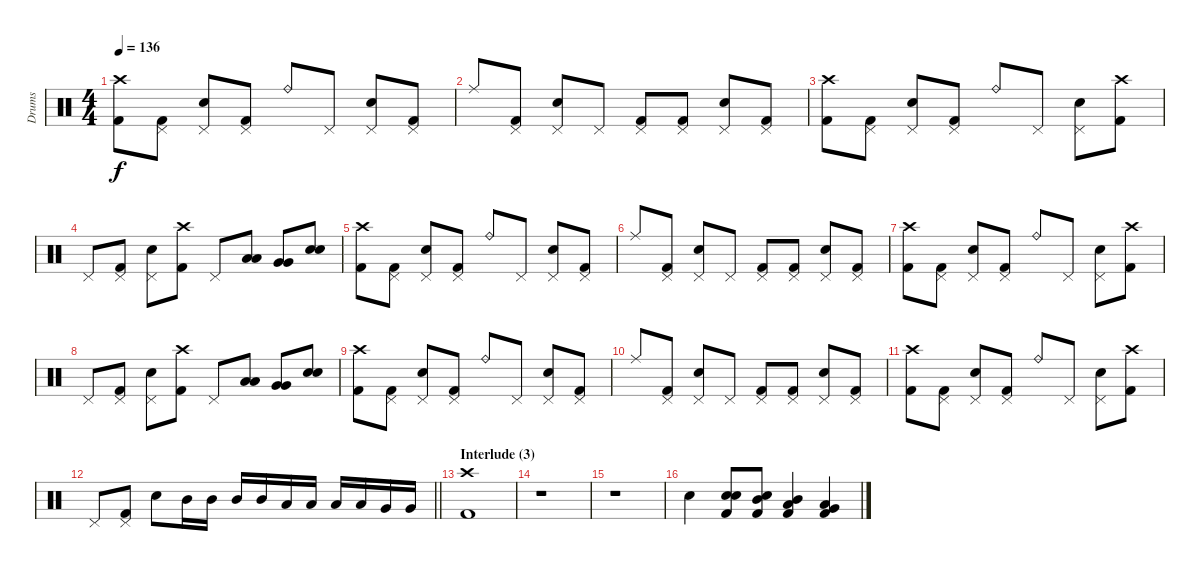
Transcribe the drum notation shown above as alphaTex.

\track ("Drums" "Drums") {instrument percussion}
\staff {score}
\articulation defaults
\ts (4 4)
\tempo 136
\clef neutral
\ks c
("Crash high (hit)" "Kick (hit) 2").8{dy f} ("Pedal Hi-Hat (hit)" "Kick (hit) 2").8 ("Pedal Hi-Hat (hit)" "Electric Snare (hit)").8 ("Pedal Hi-Hat (hit)" "Kick (hit) 2").8 "Ride (bell)".8 "Pedal Hi-Hat (hit)".8 ("Pedal Hi-Hat (hit)" "Electric Snare (hit)").8 ("Pedal Hi-Hat (hit)" "Kick (hit) 2").8 |
"Ride (middle)".8 ("Pedal Hi-Hat (hit)" "Kick (hit) 2").8 ("Pedal Hi-Hat (hit)" "Electric Snare (hit)").8 "Pedal Hi-Hat (hit)".8 ("Pedal Hi-Hat (hit)" "Kick (hit) 2").8 ("Pedal Hi-Hat (hit)" "Kick (hit) 2").8 ("Pedal Hi-Hat (hit)" "Electric Snare (hit)").8 ("Pedal Hi-Hat (hit)" "Kick (hit) 2").8 |
("Crash high (hit)" "Kick (hit) 2").8 ("Pedal Hi-Hat (hit)" "Kick (hit) 2").8 ("Pedal Hi-Hat (hit)" "Electric Snare (hit)").8 ("Pedal Hi-Hat (hit)" "Kick (hit) 2").8 "Ride (bell)".8 "Pedal Hi-Hat (hit)".8 ("Pedal Hi-Hat (hit)" "Electric Snare (hit)").8 ("Crash high (hit)" "Kick (hit) 2").8 |
"Pedal Hi-Hat (hit)".8 ("Pedal Hi-Hat (hit)" "Kick (hit) 2").8 ("Pedal Hi-Hat (hit)" "Electric Snare (hit)").8 ("Crash high (hit)" "Kick (hit) 2").8 "Pedal Hi-Hat (hit)".8 ("Low Tom (hit)" "Low Tom (hit)").8 ("Very Low Tom (hit)" "Very Low Tom (hit)").8 ("Electric Snare (hit)" "Electric Snare (hit)").8 |
("Crash high (hit)" "Kick (hit) 2").8 ("Pedal Hi-Hat (hit)" "Kick (hit) 2").8 ("Pedal Hi-Hat (hit)" "Electric Snare (hit)").8 ("Pedal Hi-Hat (hit)" "Kick (hit) 2").8 "Ride (bell)".8 "Pedal Hi-Hat (hit)".8 ("Pedal Hi-Hat (hit)" "Electric Snare (hit)").8 ("Pedal Hi-Hat (hit)" "Kick (hit) 2").8 |
"Ride (middle)".8 ("Pedal Hi-Hat (hit)" "Kick (hit) 2").8 ("Pedal Hi-Hat (hit)" "Electric Snare (hit)").8 "Pedal Hi-Hat (hit)".8 ("Pedal Hi-Hat (hit)" "Kick (hit) 2").8 ("Pedal Hi-Hat (hit)" "Kick (hit) 2").8 ("Pedal Hi-Hat (hit)" "Electric Snare (hit)").8 ("Pedal Hi-Hat (hit)" "Kick (hit) 2").8 |
("Crash high (hit)" "Kick (hit) 2").8 ("Pedal Hi-Hat (hit)" "Kick (hit) 2").8 ("Pedal Hi-Hat (hit)" "Electric Snare (hit)").8 ("Pedal Hi-Hat (hit)" "Kick (hit) 2").8 "Ride (bell)".8 "Pedal Hi-Hat (hit)".8 ("Pedal Hi-Hat (hit)" "Electric Snare (hit)").8 ("Crash high (hit)" "Kick (hit) 2").8 |
"Pedal Hi-Hat (hit)".8 ("Pedal Hi-Hat (hit)" "Kick (hit) 2").8 ("Pedal Hi-Hat (hit)" "Electric Snare (hit)").8 ("Crash high (hit)" "Kick (hit) 2").8 "Pedal Hi-Hat (hit)".8 ("Low Tom (hit)" "Low Tom (hit)").8 ("Very Low Tom (hit)" "Very Low Tom (hit)").8 ("Electric Snare (hit)" "Electric Snare (hit)").8 |
("Crash high (hit)" "Kick (hit) 2").8 ("Pedal Hi-Hat (hit)" "Kick (hit) 2").8 ("Pedal Hi-Hat (hit)" "Electric Snare (hit)").8 ("Pedal Hi-Hat (hit)" "Kick (hit) 2").8 "Ride (bell)".8 "Pedal Hi-Hat (hit)".8 ("Pedal Hi-Hat (hit)" "Electric Snare (hit)").8 ("Pedal Hi-Hat (hit)" "Kick (hit) 2").8 |
"Ride (middle)".8 ("Pedal Hi-Hat (hit)" "Kick (hit) 2").8 ("Pedal Hi-Hat (hit)" "Electric Snare (hit)").8 "Pedal Hi-Hat (hit)".8 ("Pedal Hi-Hat (hit)" "Kick (hit) 2").8 ("Pedal Hi-Hat (hit)" "Kick (hit) 2").8 ("Pedal Hi-Hat (hit)" "Electric Snare (hit)").8 ("Pedal Hi-Hat (hit)" "Kick (hit) 2").8 |
("Crash high (hit)" "Kick (hit) 2").8 ("Pedal Hi-Hat (hit)" "Kick (hit) 2").8 ("Pedal Hi-Hat (hit)" "Electric Snare (hit)").8 ("Pedal Hi-Hat (hit)" "Kick (hit) 2").8 "Ride (bell)".8 "Pedal Hi-Hat (hit)".8 ("Pedal Hi-Hat (hit)" "Electric Snare (hit)").8 ("Crash high (hit)" "Kick (hit) 2").8 |
\barLineRight lightlight "Pedal Hi-Hat (hit)".8
("Pedal Hi-Hat (hit)" "Kick (hit) 2").8 "Electric Snare (hit)".8 "Mid Tom (hit)".16 "Mid Tom (hit)".16 "Mid Tom (hit)".16 "Mid Tom (hit)".16 "Low Tom (hit)".16 "Low Tom (hit)".16 "Low Tom (hit)".16 "Low Tom (hit)".16 "Very Low Tom (hit)".16 "Very Low Tom (hit)".16 |
\section ("" "Interlude (3)")
("Crash high (hit)" "Kick (hit) 2").1 |
r.1 |
r.1 |
"Electric Snare (hit)".4 ("Electric Snare (hit)" "Electric Snare (hit)" "Kick (hit) 2").8 ("Mid Tom (hit)" "Electric Snare (hit)" "Kick (hit) 2").8 ("Low Tom (hit)" "Mid Tom (hit)" "Kick (hit) 2").4 ("Very Low Tom (hit)" "Low Tom (hit)" "Kick (hit) 2").4
